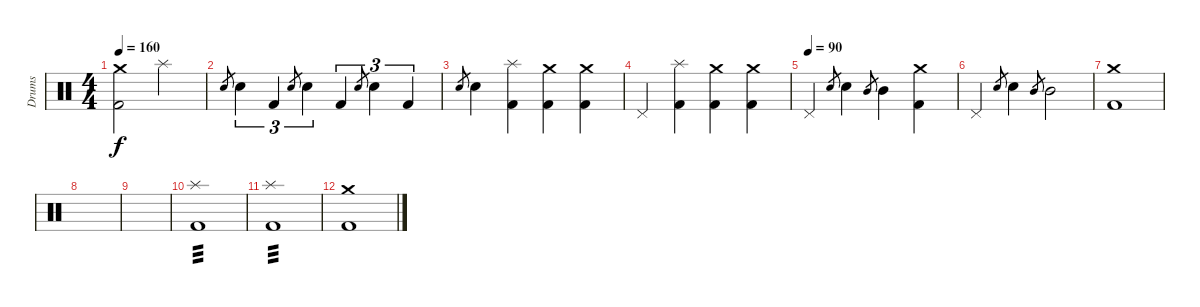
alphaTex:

\track ("Drums" "Drums") {instrument percussion}
\staff {score}
\articulation defaults
\ts (4 4)
\tempo 160
\clef neutral
\ks c
("Crash medium (hit)" "Kick (hit) 2").2{dy f} "Splash (hit)".2 |
"Snare (hit) 2".8{gr} "Snare (hit) 2".4{tu (3 2)} "Kick (hit) 2".4{tu (3 2)} "Snare (hit) 2".8{gr} "Snare (hit) 2".4{tu (3 2)} "Kick (hit) 2".4{tu (3 2)} "Snare (hit) 2".8{gr} "Snare (hit) 2".4{tu (3 2)} "Kick (hit) 2".4{tu (3 2)} |
"Snare (hit) 2".8{gr} "Snare (hit) 2".4 ("Splash (hit)" "Kick (hit) 2").4 ("Crash medium (hit)" "Kick (hit) 2").4 ("Crash medium (hit)" "Kick (hit) 2").4 |
"Pedal Hi-Hat (hit)".4 ("Splash (hit)" "Kick (hit) 2").4 ("Crash medium (hit)" "Kick (hit) 2").4 ("Crash medium (hit)" "Kick (hit) 2").4 |
\tempo (90)
"Pedal Hi-Hat (hit)".4 "Snare (hit) 2".8{gr} "Snare (hit) 2".4 "Mid Tom (hit)".8{gr} "Mid Tom (hit)".4 ("Crash medium (hit)" "Kick (hit) 2").4 |
"Pedal Hi-Hat (hit)".4 "Snare (hit) 2".8{gr} "Snare (hit) 2".4 "Mid Tom (hit)".8{gr} "Mid Tom (hit)".2 |
("Crash medium (hit)" "Kick (hit) 2").1 |
|
|
("Splash (hit)" "Kick (hit) 2").1{tp 3} |
("Splash (hit)" "Kick (hit) 2").1{tp 3} |
("Crash medium (hit)" "Kick (hit) 2").1
